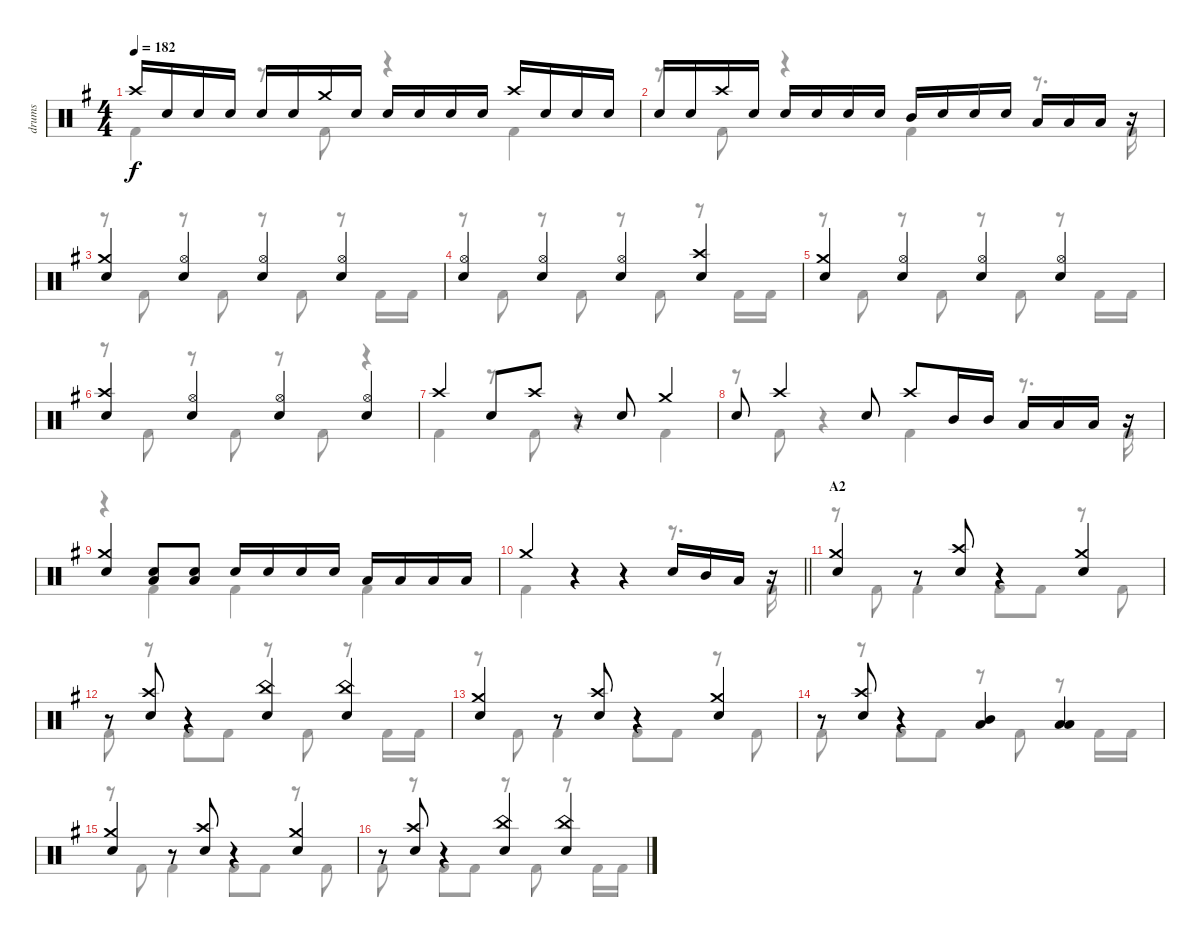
\track ("drums" "drums") {instrument percussion}
\staff {score}
\articulation defaults
\voice
\ts (4 4)
\tempo 182
\clef neutral
\ks g "Crash high (hit)".16{dy f} "Snare (hit) 2".16 "Snare (hit) 2".16 "Snare (hit) 2".16 "Snare (hit) 2".16 "Snare (hit) 2".16 "Crash medium (hit)".16 "Snare (hit) 2".16 "Snare (hit) 2".16 "Snare (hit) 2".16 "Snare (hit) 2".16 "Snare (hit) 2".16 "Crash high (hit)".16 "Snare (hit) 2".16 "Snare (hit) 2".16 "Snare (hit) 2".16
|
"Snare (hit) 2".16 "Snare (hit) 2".16 "Crash high (hit)".16 "Snare (hit) 2".16 "Snare (hit) 2".16 "Snare (hit) 2".16 "Snare (hit) 2".16 "Snare (hit) 2".16 "Mid Tom (hit)".16 "Snare (hit) 2".16 "Snare (hit) 2".16 "Snare (hit) 2".16 "Low Tom (hit)".16 "Low Tom (hit)".16 "Low Floor Tom (hit)".16 r.16 |
("Crash medium (hit)" "Snare (hit) 2").4 ("Hi-Hat (open)" "Snare (hit) 2").4 ("Hi-Hat (open)" "Snare (hit) 2").4 ("Hi-Hat (open)" "Snare (hit) 2").4 |
("Hi-Hat (open)" "Snare (hit) 2").4 ("Hi-Hat (open)" "Snare (hit) 2").4 ("Hi-Hat (open)" "Snare (hit) 2").4 ("Crash high (hit)" "Snare (hit) 2").4 |
("Crash medium (hit)" "Snare (hit) 2").4 ("Hi-Hat (open)" "Snare (hit) 2").4 ("Hi-Hat (open)" "Snare (hit) 2").4 ("Hi-Hat (open)" "Snare (hit) 2").4 |
("Crash high (hit)" "Snare (hit) 2").4 ("Hi-Hat (open)" "Snare (hit) 2").4 ("Hi-Hat (open)" "Snare (hit) 2").4 ("Hi-Hat (open)" "Snare (hit) 2").4 |
"Crash high (hit)".4 "Snare (hit) 2".8 "Crash high (hit)".8 r.8 "Snare (hit) 2".8 "Crash medium (hit)".4 |
"Snare (hit) 2".8 "Crash high (hit)".4 "Snare (hit) 2".8 "Crash high (hit)".8 "Mid Tom (hit)".16 "Mid Tom (hit)".16 "Low Tom (hit)".16 "Low Tom (hit)".16 "Low Floor Tom (hit)".16 r.16 |
("Crash medium (hit)" "Snare (hit) 2").4 ("Snare (hit) 2" "Low Floor Tom (hit)").8 ("Snare (hit) 2" "Low Floor Tom (hit)").8 "Snare (hit) 2".16 "Snare (hit) 2".16 "Snare (hit) 2".16 "Snare (hit) 2".16 "Low Tom (hit)".16 "Low Tom (hit)".16 "Low Floor Tom (hit)".16 "Low Floor Tom (hit)".16 |
\barLineRight lightlight "Crash medium (hit)".4
r.4 r.4 "Snare (hit) 2".16 "Mid Tom (hit)".16 "Low Tom (hit)".16 r.16 |
\section ("" "A2")
("Crash medium (hit)" "Snare (hit) 2").4 r.8 ("Crash high (hit)" "Snare (hit) 2").8 r.4 ("Crash medium (hit)" "Snare (hit) 2").4 |
r.8 ("Crash high (hit)" "Snare (hit) 2").8 r.4 ("China (hit)" "Snare (hit) 2").4 ("China (hit)" "Snare (hit) 2").4 |
("Crash medium (hit)" "Snare (hit) 2").4 r.8 ("Crash high (hit)" "Snare (hit) 2").8 r.4 ("Crash medium (hit)" "Snare (hit) 2").4 |
r.8 ("Crash high (hit)" "Snare (hit) 2").8 r.4 ("Mid Tom (hit)" "Low Tom (hit)").4 ("Low Tom (hit)" "Low Floor Tom (hit)").4 |
("Crash medium (hit)" "Snare (hit) 2").4 r.8 ("Crash high (hit)" "Snare (hit) 2").8 r.4 ("Crash medium (hit)" "Snare (hit) 2").4 |
r.8 ("Crash high (hit)" "Snare (hit) 2").8 r.4 ("China (hit)" "Snare (hit) 2").4 ("China (hit)" "Snare (hit) 2").4
\voice
\clef neutral
\ottava regular
\simile none
\ks g "Kick (hit) 2".4{dy f}
r.8 "Kick (hit) 2".8 r.4 "Kick (hit) 2".4 |
r.8 "Kick (hit) 2".8 r.4 "Kick (hit) 2".4 r.8{d} "Kick (hit) 2".16 |
r.8 "Kick (hit) 2".8 r.8 "Kick (hit) 2".8 r.8 "Kick (hit) 2".8 r.8 "Kick (hit) 2".16 "Kick (hit) 2".16 |
r.8 "Kick (hit) 2".8 r.8 "Kick (hit) 2".8 r.8 "Kick (hit) 2".8 r.8 "Kick (hit) 2".16 "Kick (hit) 2".16 |
r.8 "Kick (hit) 2".8 r.8 "Kick (hit) 2".8 r.8 "Kick (hit) 2".8 r.8 "Kick (hit) 2".16 "Kick (hit) 2".16 |
r.8 "Kick (hit) 2".8 r.8 "Kick (hit) 2".8 r.8 "Kick (hit) 2".8 r.4 |
"Kick (hit) 2".4 r.8 "Kick (hit) 2".8 r.4 "Kick (hit) 2".4 |
r.8 "Kick (hit) 2".8 r.4 "Kick (hit) 2".4 r.8{d} "Kick (hit) 2".16 |
r.4 "Kick (hit) 2".4 "Kick (hit) 2".4 "Kick (hit) 2".4 |
\barLineRight lightlight "Kick (hit) 2".4
r.4 r.4 r.8{d} "Kick (hit) 2".16 |
r.8 "Kick (hit) 2".8 "Kick (hit) 2".4 "Kick (hit) 2".8 "Kick (hit) 2".8 r.8 "Kick (hit) 2".8 |
"Kick (hit) 2".8 r.8 "Kick (hit) 2".8 "Kick (hit) 2".8 r.8 "Kick (hit) 2".8 r.8 "Kick (hit) 2".16 "Kick (hit) 2".16 |
r.8 "Kick (hit) 2".8 "Kick (hit) 2".4 "Kick (hit) 2".8 "Kick (hit) 2".8 r.8 "Kick (hit) 2".8 |
"Kick (hit) 2".8 r.8 "Kick (hit) 2".8 "Kick (hit) 2".8 r.8 "Kick (hit) 2".8 r.8 "Kick (hit) 2".16 "Kick (hit) 2".16 |
r.8 "Kick (hit) 2".8 "Kick (hit) 2".4 "Kick (hit) 2".8 "Kick (hit) 2".8 r.8 "Kick (hit) 2".8 |
"Kick (hit) 2".8 r.8 "Kick (hit) 2".8 "Kick (hit) 2".8 r.8 "Kick (hit) 2".8 r.8 "Kick (hit) 2".16 "Kick (hit) 2".16
